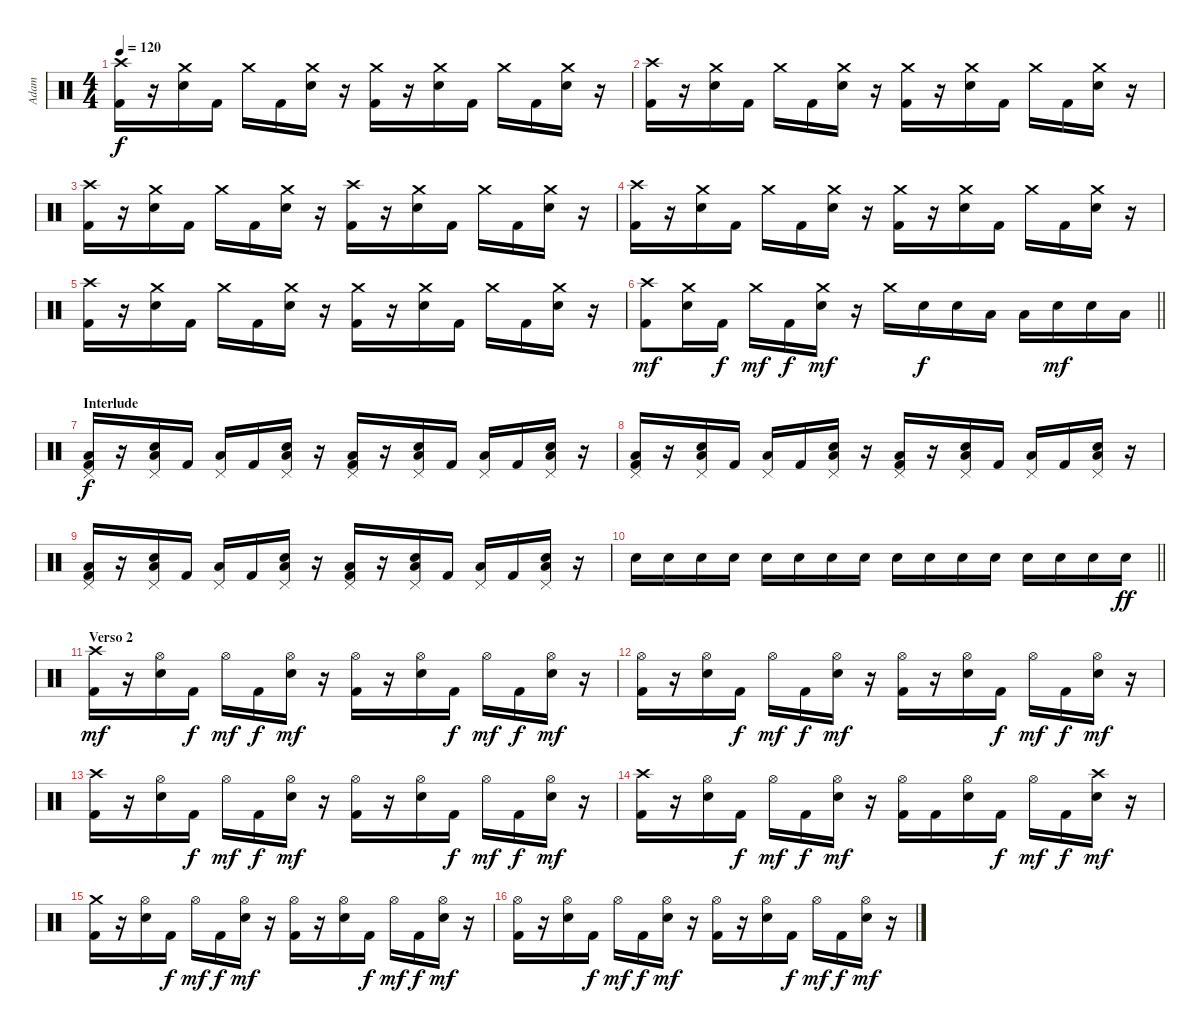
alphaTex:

\track ("Adam" "Adam") {instrument percussion}
\staff {score}
\articulation defaults
\ts (4 4)
\tempo 120
\clef neutral
\ks c
("Crash high (hit)" "Kick (hit) 2").16{dy f} r.16 ("Crash medium (hit)" "Snare (hit) 2").16 "Kick (hit) 2".16 "Crash medium (hit)".16 "Kick (hit) 2".16 ("Crash medium (hit)" "Snare (hit) 2").16 r.16 ("Crash medium (hit)" "Kick (hit) 2").16 r.16 ("Crash medium (hit)" "Snare (hit) 2").16 "Kick (hit) 2".16 "Crash medium (hit)".16 "Kick (hit) 2".16 ("Crash medium (hit)" "Snare (hit) 2").16 r.16 |
("Crash high (hit)" "Kick (hit) 2").16 r.16 ("Crash medium (hit)" "Snare (hit) 2").16 "Kick (hit) 2".16 "Crash medium (hit)".16 "Kick (hit) 2".16 ("Crash medium (hit)" "Snare (hit) 2").16 r.16 ("Crash medium (hit)" "Kick (hit) 2").16 r.16 ("Crash medium (hit)" "Snare (hit) 2").16 "Kick (hit) 2".16 "Crash medium (hit)".16 "Kick (hit) 2".16 ("Crash medium (hit)" "Snare (hit) 2").16 r.16 |
("Crash high (hit)" "Kick (hit) 2").16 r.16 ("Crash medium (hit)" "Snare (hit) 2").16 "Kick (hit) 2".16 "Crash medium (hit)".16 "Kick (hit) 2".16 ("Crash medium (hit)" "Snare (hit) 2").16 r.16 ("Crash high (hit)" "Kick (hit) 2").16 r.16 ("Crash medium (hit)" "Snare (hit) 2").16 "Kick (hit) 2".16 "Crash medium (hit)".16 "Kick (hit) 2".16 ("Crash medium (hit)" "Snare (hit) 2").16 r.16 |
("Crash high (hit)" "Kick (hit) 2").16 r.16 ("Crash medium (hit)" "Snare (hit) 2").16 "Kick (hit) 2".16 "Crash medium (hit)".16 "Kick (hit) 2".16 ("Crash medium (hit)" "Snare (hit) 2").16 r.16 ("Crash medium (hit)" "Kick (hit) 2").16 r.16 ("Crash medium (hit)" "Snare (hit) 2").16 "Kick (hit) 2".16 "Crash medium (hit)".16 "Kick (hit) 2".16 ("Crash medium (hit)" "Snare (hit) 2").16 r.16 |
("Crash high (hit)" "Kick (hit) 2").16 r.16 ("Crash medium (hit)" "Snare (hit) 2").16 "Kick (hit) 2".16 "Crash medium (hit)".16 "Kick (hit) 2".16 ("Crash medium (hit)" "Snare (hit) 2").16 r.16 ("Crash medium (hit)" "Kick (hit) 2").16 r.16 ("Crash medium (hit)" "Snare (hit) 2").16 "Kick (hit) 2".16 "Crash medium (hit)".16 "Kick (hit) 2".16 ("Crash medium (hit)" "Snare (hit) 2").16 r.16 |
\barLineRight lightlight
("Crash high (hit)" "Kick (hit) 2").8{dy mf} ("Crash medium (hit)" "Snare (hit) 2").16 "Kick (hit) 2".16{dy f} "Crash medium (hit)".16{dy mf} "Kick (hit) 2".16{dy f} ("Crash medium (hit)" "Snare (hit) 2").16{dy mf} r.16 "Crash medium (hit)".16 "Snare (hit) 2".16{dy f} "Snare (hit) 2".16 "Low Floor Tom (hit)".16 "Low Floor Tom (hit)".16 "Snare (hit) 2".16{dy mf} "Snare (hit) 2".16 "Low Floor Tom (hit)".16 |
\section ("" "Interlude")
("Pedal Hi-Hat (hit)" "Low Floor Tom (hit)" "Kick (hit) 2").16{dy f} r.16 ("Pedal Hi-Hat (hit)" "Low Floor Tom (hit)" "Snare (hit) 2").16 "Kick (hit) 2".16 ("Pedal Hi-Hat (hit)" "Low Floor Tom (hit)").16 "Kick (hit) 2".16 ("Pedal Hi-Hat (hit)" "Low Floor Tom (hit)" "Snare (hit) 2").16 r.16 ("Pedal Hi-Hat (hit)" "Low Floor Tom (hit)" "Kick (hit) 2").16 r.16 ("Pedal Hi-Hat (hit)" "Low Floor Tom (hit)" "Snare (hit) 2").16 "Kick (hit) 2".16 ("Pedal Hi-Hat (hit)" "Low Floor Tom (hit)").16 "Kick (hit) 2".16 ("Pedal Hi-Hat (hit)" "Low Floor Tom (hit)" "Snare (hit) 2").16 r.16 |
("Pedal Hi-Hat (hit)" "Low Floor Tom (hit)" "Kick (hit) 2").16 r.16 ("Pedal Hi-Hat (hit)" "Low Floor Tom (hit)" "Snare (hit) 2").16 "Kick (hit) 2".16 ("Pedal Hi-Hat (hit)" "Low Floor Tom (hit)").16 "Kick (hit) 2".16 ("Pedal Hi-Hat (hit)" "Low Floor Tom (hit)" "Snare (hit) 2").16 r.16 ("Pedal Hi-Hat (hit)" "Low Floor Tom (hit)" "Kick (hit) 2").16 r.16 ("Pedal Hi-Hat (hit)" "Low Floor Tom (hit)" "Snare (hit) 2").16 "Kick (hit) 2".16 ("Pedal Hi-Hat (hit)" "Low Floor Tom (hit)").16 "Kick (hit) 2".16 ("Pedal Hi-Hat (hit)" "Low Floor Tom (hit)" "Snare (hit) 2").16 r.16 |
("Pedal Hi-Hat (hit)" "Low Floor Tom (hit)" "Kick (hit) 2").16 r.16 ("Pedal Hi-Hat (hit)" "Low Floor Tom (hit)" "Snare (hit) 2").16 "Kick (hit) 2".16 ("Pedal Hi-Hat (hit)" "Low Floor Tom (hit)").16 "Kick (hit) 2".16 ("Pedal Hi-Hat (hit)" "Low Floor Tom (hit)" "Snare (hit) 2").16 r.16 ("Pedal Hi-Hat (hit)" "Low Floor Tom (hit)" "Kick (hit) 2").16 r.16 ("Pedal Hi-Hat (hit)" "Low Floor Tom (hit)" "Snare (hit) 2").16 "Kick (hit) 2".16 ("Pedal Hi-Hat (hit)" "Low Floor Tom (hit)").16 "Kick (hit) 2".16 ("Pedal Hi-Hat (hit)" "Low Floor Tom (hit)" "Snare (hit) 2").16 r.16 |
\barLineRight lightlight "Snare (hit) 2".16 "Snare (hit) 2".16 "Snare (hit) 2".16 "Snare (hit) 2".16 "Snare (hit) 2".16 "Snare (hit) 2".16 "Snare (hit) 2".16 "Snare (hit) 2".16 "Snare (hit) 2".16 "Snare (hit) 2".16 "Snare (hit) 2".16 "Snare (hit) 2".16 "Snare (hit) 2".16 "Snare (hit) 2".16 "Snare (hit) 2".16 "Snare (hit) 2".16{dy ff}
|
\section ("" "Verso 2")
("Crash high (hit)" "Kick (hit) 2").16{dy mf} r.16 ("Hi-Hat (open)" "Snare (hit) 2").16 "Kick (hit) 2".16{dy f} "Hi-Hat (open)".16{dy mf} "Kick (hit) 2".16{dy f} ("Hi-Hat (open)" "Snare (hit) 2").16{dy mf} r.16 ("Hi-Hat (open)" "Kick (hit) 2").16 r.16 ("Hi-Hat (open)" "Snare (hit) 2").16 "Kick (hit) 2".16{dy f} "Hi-Hat (open)".16{dy mf} "Kick (hit) 2".16{dy f} ("Hi-Hat (open)" "Snare (hit) 2").16{dy mf} r.16 |
("Hi-Hat (open)" "Kick (hit) 2").16 r.16 ("Hi-Hat (open)" "Snare (hit) 2").16 "Kick (hit) 2".16{dy f} "Hi-Hat (open)".16{dy mf} "Kick (hit) 2".16{dy f} ("Hi-Hat (open)" "Snare (hit) 2").16{dy mf} r.16 ("Hi-Hat (open)" "Kick (hit) 2").16 r.16 ("Hi-Hat (open)" "Snare (hit) 2").16 "Kick (hit) 2".16{dy f} "Hi-Hat (open)".16{dy mf} "Kick (hit) 2".16{dy f} ("Hi-Hat (open)" "Snare (hit) 2").16{dy mf} r.16 |
("Crash high (hit)" "Kick (hit) 2").16 r.16 ("Hi-Hat (open)" "Snare (hit) 2").16 "Kick (hit) 2".16{dy f} "Hi-Hat (open)".16{dy mf} "Kick (hit) 2".16{dy f} ("Hi-Hat (open)" "Snare (hit) 2").16{dy mf} r.16 ("Hi-Hat (open)" "Kick (hit) 2").16 r.16 ("Hi-Hat (open)" "Snare (hit) 2").16 "Kick (hit) 2".16{dy f} "Hi-Hat (open)".16{dy mf} "Kick (hit) 2".16{dy f} ("Hi-Hat (open)" "Snare (hit) 2").16{dy mf} r.16 |
("Crash high (hit)" "Kick (hit) 2").16 r.16 ("Hi-Hat (open)" "Snare (hit) 2").16 "Kick (hit) 2".16{dy f} "Hi-Hat (open)".16{dy mf} "Kick (hit) 2".16{dy f} ("Hi-Hat (open)" "Snare (hit) 2").16{dy mf} r.16 ("Hi-Hat (open)" "Kick (hit) 2").16 "Kick (hit) 2".16 ("Hi-Hat (open)" "Snare (hit) 2").16 "Kick (hit) 2".16{dy f} "Hi-Hat (open)".16{dy mf} "Kick (hit) 2".16{dy f} ("Crash high (hit)" "Snare (hit) 2").16{dy mf} r.16 |
("Crash medium (hit)" "Kick (hit) 2").16 r.16 ("Hi-Hat (open)" "Snare (hit) 2").16 "Kick (hit) 2".16{dy f} "Hi-Hat (open)".16{dy mf} "Kick (hit) 2".16{dy f} ("Hi-Hat (open)" "Snare (hit) 2").16{dy mf} r.16 ("Hi-Hat (open)" "Kick (hit) 2").16 r.16 ("Hi-Hat (open)" "Snare (hit) 2").16 "Kick (hit) 2".16{dy f} "Hi-Hat (open)".16{dy mf} "Kick (hit) 2".16{dy f} ("Hi-Hat (open)" "Snare (hit) 2").16{dy mf} r.16 |
("Hi-Hat (open)" "Kick (hit) 2").16 r.16 ("Hi-Hat (open)" "Snare (hit) 2").16 "Kick (hit) 2".16{dy f} "Hi-Hat (open)".16{dy mf} "Kick (hit) 2".16{dy f} ("Hi-Hat (open)" "Snare (hit) 2").16{dy mf} r.16 ("Hi-Hat (open)" "Kick (hit) 2").16 r.16 ("Hi-Hat (open)" "Snare (hit) 2").16 "Kick (hit) 2".16{dy f} "Hi-Hat (open)".16{dy mf} "Kick (hit) 2".16{dy f} ("Hi-Hat (open)" "Snare (hit) 2").16{dy mf} r.16
